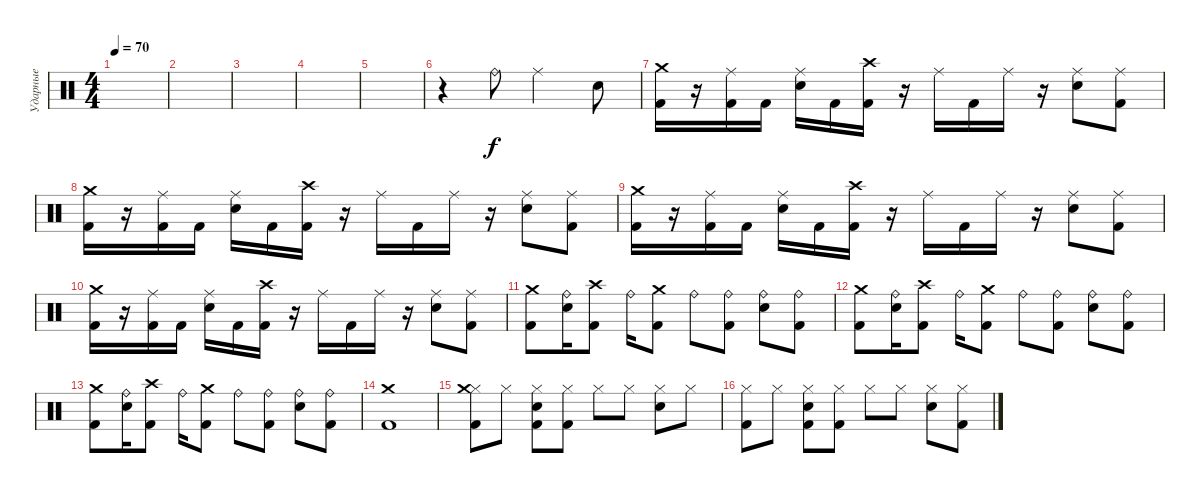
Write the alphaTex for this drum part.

\track ("Ударные" "Ударные") {instrument percussion}
\staff {score}
\articulation defaults
\ts (4 4)
\tempo 70
\clef neutral
\ks c
|
|
|
|
|
r.4 "Ride (bell)".8 "Ride (middle)".2 "Electric Snare (hit)".8 |
("Crash medium (hit)" "Kick (hit) 2").16 r.16 ("Ride (middle)" "Kick (hit) 2").16 "Kick (hit) 2".16 ("Ride (middle)" "Electric Snare (hit)").16 "Kick (hit) 2".16 ("Kick (hit) 2" "Crash high (hit)").16 r.16 "Ride (middle)".16 "Kick (hit) 2".16 "Ride (middle)".16 r.16 ("Ride (middle)" "Electric Snare (hit)").8 ("Ride (middle)" "Kick (hit) 2").8 |
("Crash medium (hit)" "Kick (hit) 2").16 r.16 ("Ride (middle)" "Kick (hit) 2").16 "Kick (hit) 2".16 ("Ride (middle)" "Electric Snare (hit)").16 "Kick (hit) 2".16 ("Kick (hit) 2" "Crash high (hit)").16 r.16 "Ride (middle)".16 "Kick (hit) 2".16 "Ride (middle)".16 r.16 ("Ride (middle)" "Electric Snare (hit)").8 ("Ride (middle)" "Kick (hit) 2").8 |
("Crash medium (hit)" "Kick (hit) 2").16 r.16 ("Ride (middle)" "Kick (hit) 2").16 "Kick (hit) 2".16 ("Ride (middle)" "Electric Snare (hit)").16 "Kick (hit) 2".16 ("Kick (hit) 2" "Crash high (hit)").16 r.16 "Ride (middle)".16 "Kick (hit) 2".16 "Ride (middle)".16 r.16 ("Ride (middle)" "Electric Snare (hit)").8 ("Ride (middle)" "Kick (hit) 2").8 |
("Crash medium (hit)" "Kick (hit) 2").16 r.16 ("Ride (middle)" "Kick (hit) 2").16 "Kick (hit) 2".16 ("Ride (middle)" "Electric Snare (hit)").16 "Kick (hit) 2".16 ("Kick (hit) 2" "Crash high (hit)").16 r.16 "Ride (middle)".16 "Kick (hit) 2".16 "Ride (middle)".16 r.16 ("Ride (middle)" "Electric Snare (hit)").8 ("Ride (middle)" "Kick (hit) 2").8 |
("Kick (hit) 2" "Crash medium (hit)").8 ("Electric Snare (hit)" "Ride (bell)").16 ("Kick (hit) 2" "Crash high (hit)").8 "Ride (bell)".16 ("Kick (hit) 2" "Crash medium (hit)").8 "Ride (bell)".8 ("Kick (hit) 2" "Ride (bell)").8 ("Electric Snare (hit)" "Ride (bell)").8 ("Kick (hit) 2" "Ride (bell)").8 |
("Kick (hit) 2" "Crash medium (hit)").8 ("Electric Snare (hit)" "Ride (bell)").16 ("Kick (hit) 2" "Crash high (hit)").8 "Ride (bell)".16 ("Kick (hit) 2" "Crash medium (hit)").8 "Ride (bell)".8 ("Kick (hit) 2" "Ride (bell)").8 ("Electric Snare (hit)" "Ride (bell)").8 ("Kick (hit) 2" "Ride (bell)").8 |
("Kick (hit) 2" "Crash medium (hit)").8 ("Electric Snare (hit)" "Ride (bell)").16 ("Kick (hit) 2" "Crash high (hit)").8 "Ride (bell)".16 ("Kick (hit) 2" "Crash medium (hit)").8 "Ride (bell)".8 ("Kick (hit) 2" "Ride (bell)").8 ("Electric Snare (hit)" "Ride (bell)").8 ("Kick (hit) 2" "Ride (bell)").8 |
("Kick (hit) 2" "Crash medium (hit)").1 |
("Hi-Hat (closed)" "Kick (hit) 2" "Crash medium (hit)").8 "Hi-Hat (closed)".8 ("Hi-Hat (closed)" "Kick (hit) 2" "Electric Snare (hit)").8 ("Hi-Hat (closed)" "Kick (hit) 2").8 "Hi-Hat (closed)".8 "Hi-Hat (closed)".8 ("Hi-Hat (closed)" "Electric Snare (hit)").8 "Hi-Hat (closed)".8 |
("Hi-Hat (closed)" "Kick (hit) 2").8 "Hi-Hat (closed)".8 ("Hi-Hat (closed)" "Kick (hit) 2" "Electric Snare (hit)").8 ("Hi-Hat (closed)" "Kick (hit) 2").8 "Hi-Hat (closed)".8 "Hi-Hat (closed)".8 ("Hi-Hat (closed)" "Electric Snare (hit)").8 ("Hi-Hat (closed)" "Kick (hit) 2").8
